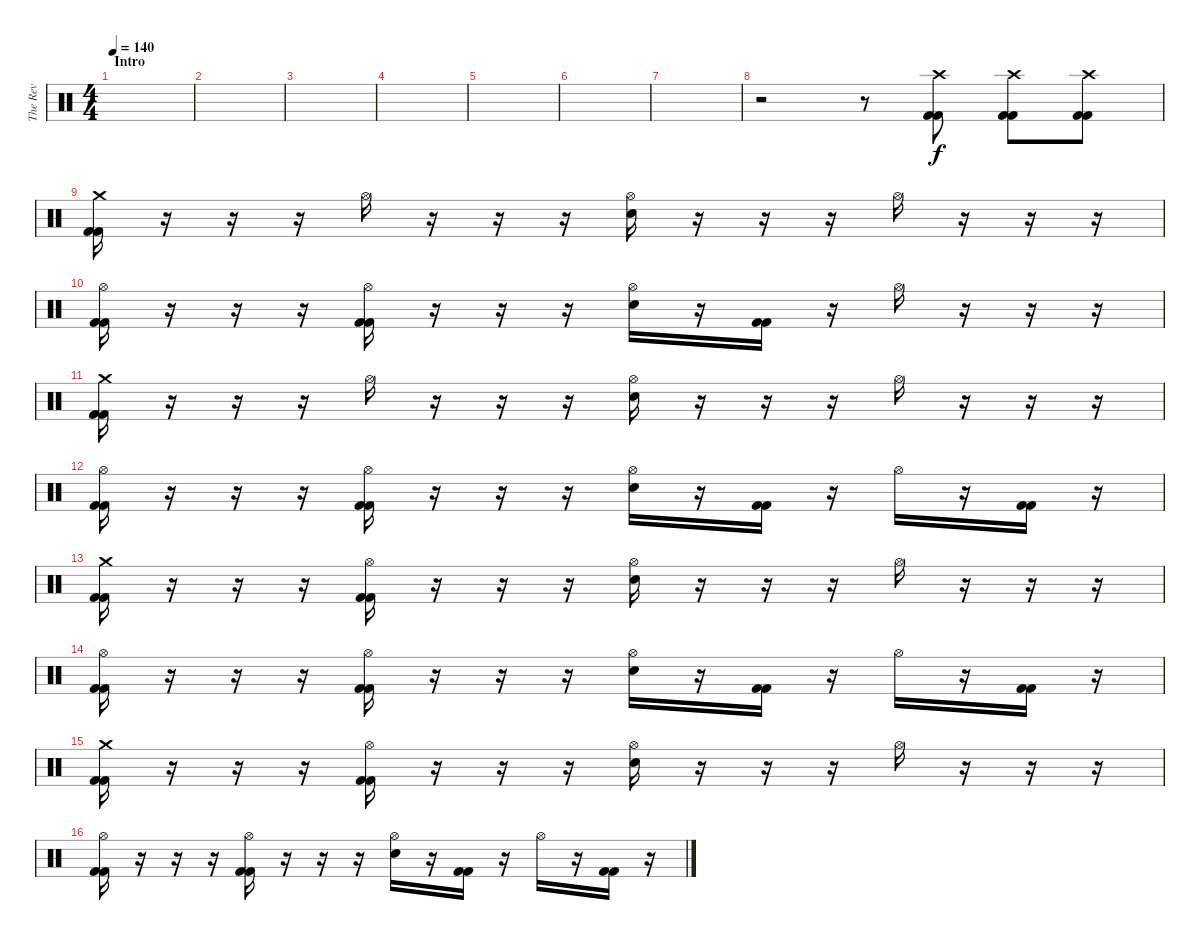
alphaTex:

\track ("The Rev" "The Rev") {instrument percussion}
\staff {score}
\articulation defaults
\ts (4 4)
\section ("" "Intro")
\tempo 140
\clef neutral
\ks c
|
|
|
|
|
|
|
r.2 r.8 ("Crash high (hit)" "Kick (hit) 2" "Kick (hit) 2").8 ("Crash high (hit)" "Kick (hit) 2" "Kick (hit) 2").8 ("Crash high (hit)" "Kick (hit) 2" "Kick (hit) 2").8 |
("Crash medium (hit)" "Kick (hit) 2" "Kick (hit) 2").16 r.16 r.16 r.16 "Hi-Hat (open)".16 r.16 r.16 r.16 ("Hi-Hat (open)" "Electric Snare (hit)").16 r.16 r.16 r.16 "Hi-Hat (open)".16 r.16 r.16 r.16 |
("Hi-Hat (open)" "Kick (hit) 2" "Kick (hit) 2").16 r.16 r.16 r.16 ("Hi-Hat (open)" "Kick (hit) 2" "Kick (hit) 2").16 r.16 r.16 r.16 ("Hi-Hat (open)" "Electric Snare (hit)").16 r.16 ("Kick (hit) 2" "Kick (hit) 2").16 r.16 "Hi-Hat (open)".16 r.16 r.16 r.16 |
("Crash medium (hit)" "Kick (hit) 2" "Kick (hit) 2").16 r.16 r.16 r.16 "Hi-Hat (open)".16 r.16 r.16 r.16 ("Hi-Hat (open)" "Electric Snare (hit)").16 r.16 r.16 r.16 "Hi-Hat (open)".16 r.16 r.16 r.16 |
("Hi-Hat (open)" "Kick (hit) 2" "Kick (hit) 2").16 r.16 r.16 r.16 ("Hi-Hat (open)" "Kick (hit) 2" "Kick (hit) 2").16 r.16 r.16 r.16 ("Hi-Hat (open)" "Electric Snare (hit)").16 r.16 ("Kick (hit) 2" "Kick (hit) 2").16 r.16 "Hi-Hat (open)".16 r.16 ("Kick (hit) 2" "Kick (hit) 2").16 r.16 |
("Crash medium (hit)" "Kick (hit) 2" "Kick (hit) 2").16 r.16 r.16 r.16 ("Hi-Hat (open)" "Kick (hit) 2" "Kick (hit) 2").16 r.16 r.16 r.16 ("Hi-Hat (open)" "Electric Snare (hit)").16 r.16 r.16 r.16 "Hi-Hat (open)".16 r.16 r.16 r.16 |
("Hi-Hat (open)" "Kick (hit) 2" "Kick (hit) 2").16 r.16 r.16 r.16 ("Hi-Hat (open)" "Kick (hit) 2" "Kick (hit) 2").16 r.16 r.16 r.16 ("Hi-Hat (open)" "Electric Snare (hit)").16 r.16 ("Kick (hit) 2" "Kick (hit) 2").16 r.16 "Hi-Hat (open)".16 r.16 ("Kick (hit) 2" "Kick (hit) 2").16 r.16 |
("Crash medium (hit)" "Kick (hit) 2" "Kick (hit) 2").16 r.16 r.16 r.16 ("Hi-Hat (open)" "Kick (hit) 2" "Kick (hit) 2").16 r.16 r.16 r.16 ("Hi-Hat (open)" "Electric Snare (hit)").16 r.16 r.16 r.16 "Hi-Hat (open)".16 r.16 r.16 r.16 |
("Hi-Hat (open)" "Kick (hit) 2" "Kick (hit) 2").16 r.16 r.16 r.16 ("Hi-Hat (open)" "Kick (hit) 2" "Kick (hit) 2").16 r.16 r.16 r.16 ("Hi-Hat (open)" "Electric Snare (hit)").16 r.16 ("Kick (hit) 2" "Kick (hit) 2").16 r.16 "Hi-Hat (open)".16 r.16 ("Kick (hit) 2" "Kick (hit) 2").16 r.16
